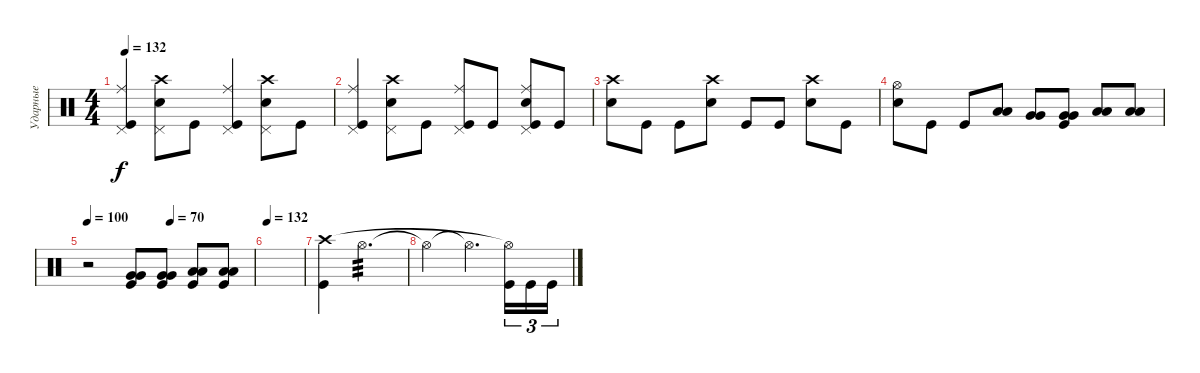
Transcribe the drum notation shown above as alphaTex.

\track ("Ударные" "Ударные") {instrument percussion}
\staff {score}
\articulation defaults
\ts (4 4)
\tempo 132
\clef neutral
\ks c
("Kick (hit)" "Ride (middle)" "Pedal Hi-Hat (hit)").4{dy f} ("Snare (hit) 2" "Crash high (hit)" "Pedal Hi-Hat (hit)").8 "Kick (hit)".8 ("Ride (middle)" "Pedal Hi-Hat (hit)" "Kick (hit)").4 ("Crash high (hit)" "Snare (hit) 2" "Pedal Hi-Hat (hit)").8 "Kick (hit)".8 |
("Pedal Hi-Hat (hit)" "Ride (middle)" "Kick (hit)").4 ("Snare (hit) 2" "Pedal Hi-Hat (hit)" "Crash high (hit)").8 "Kick (hit)".8 ("Kick (hit)" "Pedal Hi-Hat (hit)" "Ride (middle)").8 "Kick (hit)".8 ("Snare (hit) 2" "Pedal Hi-Hat (hit)" "Ride (middle)" "Kick (hit)").8 "Kick (hit)".8 |
("Snare (hit) 2" "Crash high (hit)").8 "Kick (hit)".8 "Kick (hit)".8 ("Snare (hit) 2" "Crash high (hit)").8 "Kick (hit)".8 "Kick (hit)".8 ("Snare (hit) 2" "Crash high (hit)").8 "Kick (hit)".8 |
("Snare (hit) 2" "Hi-Hat (open)").8 "Kick (hit)".8 "Kick (hit)".8 ("Low Tom (hit)" "Low Tom (hit)").8{bd 240} ("Very Low Tom (hit)" "Very Low Tom (hit)").8{bd 240} ("Very Low Tom (hit)" "Very Low Tom (hit)" "Kick (hit)").8{bd 240} ("Low Floor Tom (hit)" "Low Floor Tom (hit)").8{bd 240} ("Low Floor Tom (hit)" "Low Floor Tom (hit)").8{bd 240} |
\tempo 100
\tempo (70 0.5)
r.2 ("Very Low Tom (hit)" "Very Low Tom (hit)" "Kick (hit)").8{bd 240} ("Very Low Tom (hit)" "Very Low Tom (hit)" "Kick (hit)").8{bd 240} ("Low Floor Tom (hit)" "Low Floor Tom (hit)" "Kick (hit)").8{bd 240} ("Low Floor Tom (hit)" "Low Floor Tom (hit)" "Kick (hit)").8{bd 240} |
\tempo 132
|
("Kick (hit)" "Crash high (hit)").4 "Hi-Hat (open)".2{d tp 3} |
"Hi-Hat (open)"{t}.2 "Hi-Hat (open)"{t}.4{d} ("Kick (hit)" "Hi-Hat (open)"{t}).16{tu (3 2)} "Kick (hit)".16{tu (3 2)} "Kick (hit)".16{tu (3 2)}
